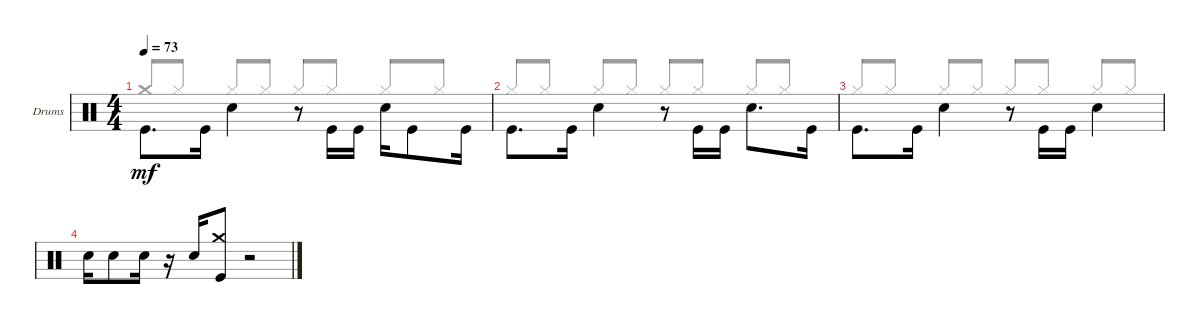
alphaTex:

\defaultSystemsLayout 4
\bracketExtendMode groupsimilarinstruments
\firstSystemTrackNameOrientation horizontal
\otherSystemsTrackNameOrientation horizontal
\track ("Drumkit" "Drums") {solo instrument percussion}
\staff {score}
\articulation defaults
\voice
\ts (4 4)
\tempo 73
\clef neutral
\ks c "Kick (hit)".8{d dy mf beam invert} "Kick (hit)".16 "Snare (hit) 2".4{beam invert}
r.8 "Kick (hit)".16{beam invert} "Kick (hit)".16 "Snare (hit) 2".16{beam invert} "Kick (hit)".8 "Kick (hit)".16 |
"Kick (hit)".8{d beam invert} "Kick (hit)".16 "Snare (hit) 2".4{beam invert} r.8 "Kick (hit)".16{beam invert} "Kick (hit)".16 "Snare (hit) 2".8{d beam invert} "Kick (hit)".16 |
"Kick (hit)".8{d beam invert} "Kick (hit)".16 "Snare (hit) 2".4{beam invert} r.8 "Kick (hit)".16{beam invert} "Kick (hit)".16 "Snare (hit) 2".4{beam invert} |
"Snare (hit) 2".16 "Snare (hit) 2".8 "Snare (hit) 2".16 r.16 "Snare (hit) 2".16{beam invert} ("Kick (hit)" "Crash medium (hit)").8 r.2
\voice
\clef neutral
\ottava regular
\simile none
\ks c "Crash medium (hit)".8{dy mf beam invert} "Hi-Hat (closed)".8 "Hi-Hat (closed)".8{beam invert} "Hi-Hat (closed)".8 "Hi-Hat (closed)".8{beam invert} "Hi-Hat (closed)".8 "Hi-Hat (closed)".8{beam invert} "Hi-Hat (closed)".8
|
"Hi-Hat (closed)".8{beam invert} "Hi-Hat (closed)".8 "Hi-Hat (closed)".8{beam invert} "Hi-Hat (closed)".8 "Hi-Hat (closed)".8{beam invert} "Hi-Hat (closed)".8 "Hi-Hat (closed)".8{beam invert} "Hi-Hat (closed)".8 |
"Hi-Hat (closed)".8{beam invert} "Hi-Hat (closed)".8 "Hi-Hat (closed)".8{beam invert} "Hi-Hat (closed)".8 "Hi-Hat (closed)".8{beam invert} "Hi-Hat (closed)".8 "Hi-Hat (closed)".8{beam invert} "Hi-Hat (closed)".8 |
